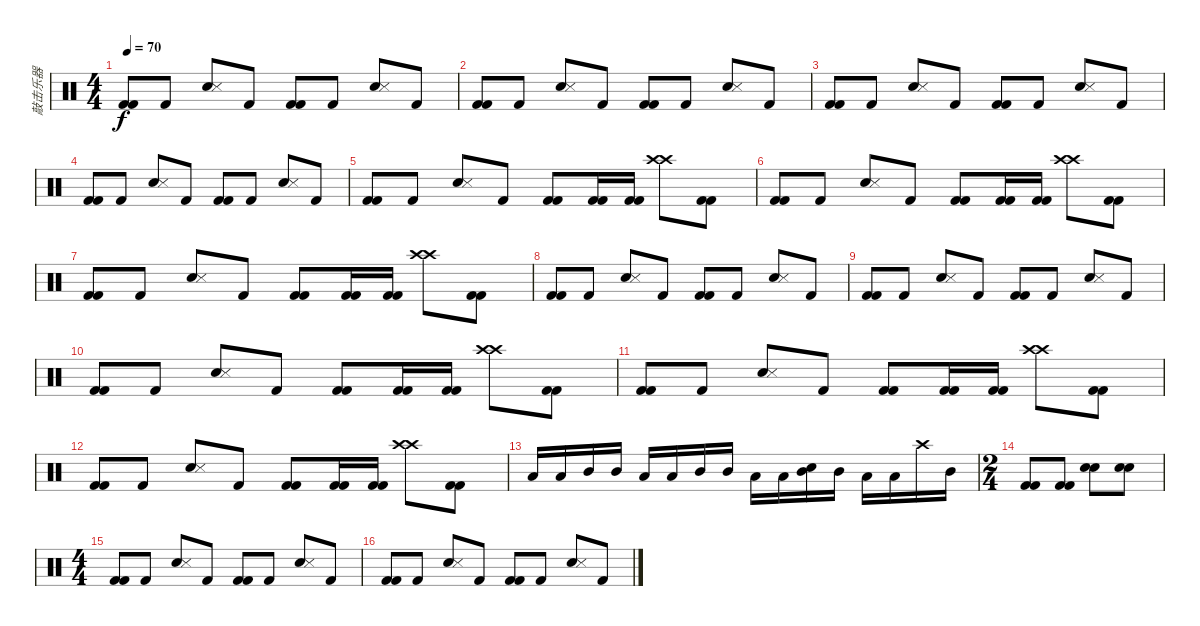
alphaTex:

\track ("敲击乐器" "敲击乐器") {instrument percussion}
\staff {score}
\articulation defaults
\ts (4 4)
\tempo 70
\clef neutral
\ks c
("Kick (hit) 2" "Kick (hit) 2").8{dy f} "Kick (hit) 2".8 ("Snare (hit) 2" "Snare (side stick) 3").8 "Kick (hit) 2".8 ("Kick (hit) 2" "Kick (hit) 2").8 "Kick (hit) 2".8 ("Snare (hit) 2" "Snare (side stick) 3").8 "Kick (hit) 2".8 |
("Kick (hit) 2" "Kick (hit) 2").8 "Kick (hit) 2".8 ("Snare (hit) 2" "Snare (side stick) 3").8 "Kick (hit) 2".8 ("Kick (hit) 2" "Kick (hit) 2").8 "Kick (hit) 2".8 ("Snare (hit) 2" "Snare (side stick) 3").8 "Kick (hit) 2".8 |
("Kick (hit) 2" "Kick (hit) 2").8 "Kick (hit) 2".8 ("Snare (hit) 2" "Snare (side stick) 3").8 "Kick (hit) 2".8 ("Kick (hit) 2" "Kick (hit) 2").8 "Kick (hit) 2".8 ("Snare (hit) 2" "Snare (side stick) 3").8 "Kick (hit) 2".8 |
("Kick (hit) 2" "Kick (hit) 2").8 "Kick (hit) 2".8 ("Snare (hit) 2" "Snare (side stick) 3").8 "Kick (hit) 2".8 ("Kick (hit) 2" "Kick (hit) 2").8 "Kick (hit) 2".8 ("Snare (hit) 2" "Snare (side stick) 3").8 "Kick (hit) 2".8 |
("Kick (hit) 2" "Kick (hit) 2").8 "Kick (hit) 2".8 ("Snare (hit) 2" "Snare (side stick) 3").8 "Kick (hit) 2".8 ("Kick (hit) 2" "Kick (hit) 2").8 ("Kick (hit) 2" "Kick (hit) 2").16 ("Kick (hit) 2" "Kick (hit) 2").16 ("Crash high (hit)" "Crash high (hit)").8 ("Kick (hit) 2" "Kick (hit) 2").8 |
("Kick (hit) 2" "Kick (hit) 2").8 "Kick (hit) 2".8 ("Snare (hit) 2" "Snare (side stick) 3").8 "Kick (hit) 2".8 ("Kick (hit) 2" "Kick (hit) 2").8 ("Kick (hit) 2" "Kick (hit) 2").16 ("Kick (hit) 2" "Kick (hit) 2").16 ("Crash high (hit)" "Crash high (hit)").8 ("Kick (hit) 2" "Kick (hit) 2").8 |
("Kick (hit) 2" "Kick (hit) 2").8 "Kick (hit) 2".8 ("Snare (hit) 2" "Snare (side stick) 3").8 "Kick (hit) 2".8 ("Kick (hit) 2" "Kick (hit) 2").8 ("Kick (hit) 2" "Kick (hit) 2").16 ("Kick (hit) 2" "Kick (hit) 2").16 ("Crash high (hit)" "Crash high (hit)").8 ("Kick (hit) 2" "Kick (hit) 2").8 |
("Kick (hit) 2" "Kick (hit) 2").8 "Kick (hit) 2".8 ("Snare (hit) 2" "Snare (side stick) 3").8 "Kick (hit) 2".8 ("Kick (hit) 2" "Kick (hit) 2").8 "Kick (hit) 2".8 ("Snare (hit) 2" "Snare (side stick) 3").8 "Kick (hit) 2".8 |
("Kick (hit) 2" "Kick (hit) 2").8 "Kick (hit) 2".8 ("Snare (hit) 2" "Snare (side stick) 3").8 "Kick (hit) 2".8 ("Kick (hit) 2" "Kick (hit) 2").8 "Kick (hit) 2".8 ("Snare (hit) 2" "Snare (side stick) 3").8 "Kick (hit) 2".8 |
("Kick (hit) 2" "Kick (hit) 2").8 "Kick (hit) 2".8 ("Snare (hit) 2" "Snare (side stick) 3").8 "Kick (hit) 2".8 ("Kick (hit) 2" "Kick (hit) 2").8 ("Kick (hit) 2" "Kick (hit) 2").16 ("Kick (hit) 2" "Kick (hit) 2").16 ("Crash high (hit)" "Crash high (hit)").8 ("Kick (hit) 2" "Kick (hit) 2").8 |
("Kick (hit) 2" "Kick (hit) 2").8 "Kick (hit) 2".8 ("Snare (hit) 2" "Snare (side stick) 3").8 "Kick (hit) 2".8 ("Kick (hit) 2" "Kick (hit) 2").8 ("Kick (hit) 2" "Kick (hit) 2").16 ("Kick (hit) 2" "Kick (hit) 2").16 ("Crash high (hit)" "Crash high (hit)").8 ("Kick (hit) 2" "Kick (hit) 2").8 |
("Kick (hit) 2" "Kick (hit) 2").8 "Kick (hit) 2".8 ("Snare (hit) 2" "Snare (side stick) 3").8 "Kick (hit) 2".8 ("Kick (hit) 2" "Kick (hit) 2").8 ("Kick (hit) 2" "Kick (hit) 2").16 ("Kick (hit) 2" "Kick (hit) 2").16 ("Crash high (hit)" "Crash high (hit)").8 ("Kick (hit) 2" "Kick (hit) 2").8 |
"Low Tom (hit)".16 "Low Tom (hit)".16 "Mid Tom (hit)".16 "Mid Tom (hit)".16 "Low Tom (hit)".16 "Low Tom (hit)".16 "Mid Tom (hit)".16 "Mid Tom (hit)".16 "Low Tom (hit)".16 "Low Tom (hit)".16 ("Snare (hit)" "Mid Tom (hit)").16 "Mid Tom (hit)".16 "Low Tom (hit)".16 "Low Tom (hit)".16 "Crash high (hit)".16 "Mid Tom (hit)".16 |
\ts (2 4)
("Kick (hit) 2" "Kick (hit) 2").8 ("Kick (hit) 2" "Kick (hit) 2").8 ("Snare (hit) 2" "Snare (hit) 2").8 ("Snare (hit) 2" "Snare (hit) 2").8 |
\ts (4 4)
("Kick (hit) 2" "Kick (hit) 2").8 "Kick (hit) 2".8 ("Snare (hit) 2" "Snare (side stick) 3").8 "Kick (hit) 2".8 ("Kick (hit) 2" "Kick (hit) 2").8 "Kick (hit) 2".8 ("Snare (hit) 2" "Snare (side stick) 3").8 "Kick (hit) 2".8 |
("Kick (hit) 2" "Kick (hit) 2").8 "Kick (hit) 2".8 ("Snare (hit) 2" "Snare (side stick) 3").8 "Kick (hit) 2".8 ("Kick (hit) 2" "Kick (hit) 2").8 "Kick (hit) 2".8 ("Snare (hit) 2" "Snare (side stick) 3").8 "Kick (hit) 2".8
